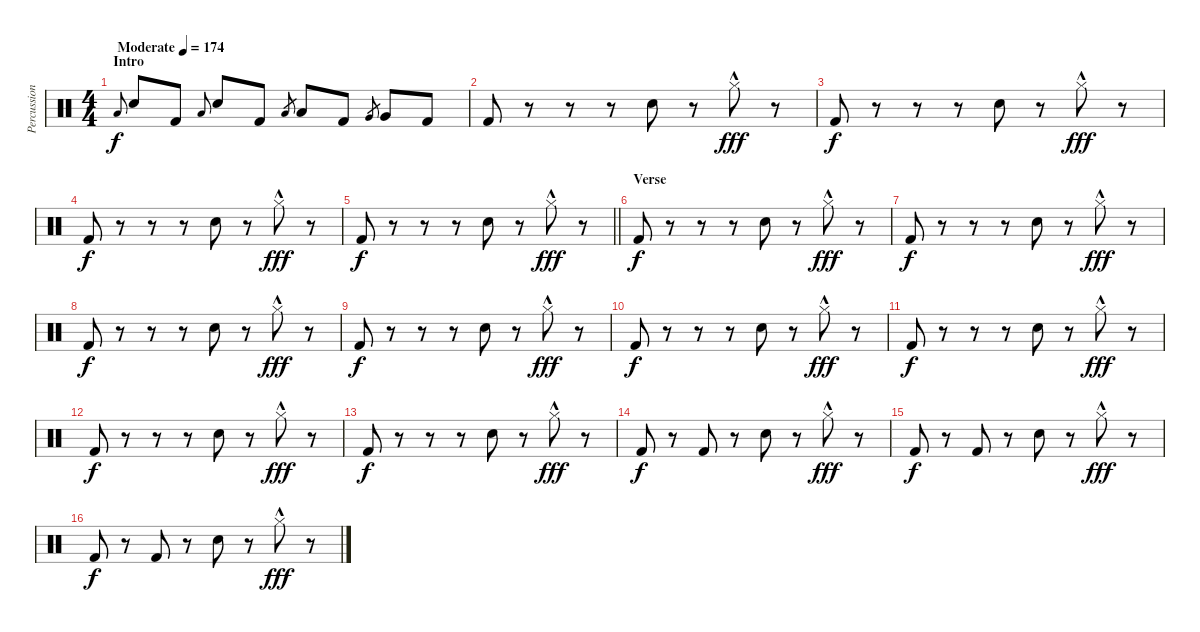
\track ("Percussion" "Percussion") {instrument percussion}
\staff {score}
\articulation defaults
\ts (4 4)
\section ("" "Intro")
\tempo (174 "Moderate")
\clef neutral
\ks c "Low Tom (hit)".8{gr onbeat dy f} "Snare (hit) 2".8 "Kick (hit) 2".8 "Low Tom (hit)".8{gr onbeat} "Snare (hit) 2".8 "Kick (hit) 2".8 "Low Tom (hit)".8{gr} "Low Tom (hit)".8 "Kick (hit) 2".8 "Very Low Tom (hit)".8{gr} "Very Low Tom (hit)".8 "Kick (hit) 2".8
|
"Kick (hit) 2".8 r.8 r.8 r.8 "Snare (hit) 2".8 r.8 "Hi-Hat (closed)"{hac}.8{dy fff} r.8 |
"Kick (hit) 2".8{dy f} r.8 r.8 r.8 "Snare (hit) 2".8 r.8 "Hi-Hat (closed)"{hac}.8{dy fff} r.8 |
"Kick (hit) 2".8{dy f} r.8 r.8 r.8 "Snare (hit) 2".8 r.8 "Hi-Hat (closed)"{hac}.8{dy fff} r.8 |
\barLineRight lightlight "Kick (hit) 2".8{dy f}
r.8 r.8 r.8 "Snare (hit) 2".8 r.8 "Hi-Hat (closed)"{hac}.8{dy fff} r.8 |
\section ("" "Verse ")
"Kick (hit) 2".8{dy f} r.8 r.8 r.8 "Snare (hit) 2".8 r.8 "Hi-Hat (closed)"{hac}.8{dy fff} r.8 |
"Kick (hit) 2".8{dy f} r.8 r.8 r.8 "Snare (hit) 2".8 r.8 "Hi-Hat (closed)"{hac}.8{dy fff} r.8 |
"Kick (hit) 2".8{dy f} r.8 r.8 r.8 "Snare (hit) 2".8 r.8 "Hi-Hat (closed)"{hac}.8{dy fff} r.8 |
"Kick (hit) 2".8{dy f} r.8 r.8 r.8 "Snare (hit) 2".8 r.8 "Hi-Hat (closed)"{hac}.8{dy fff} r.8 |
"Kick (hit) 2".8{dy f} r.8 r.8 r.8 "Snare (hit) 2".8 r.8 "Hi-Hat (closed)"{hac}.8{dy fff} r.8 |
"Kick (hit) 2".8{dy f} r.8 r.8 r.8 "Snare (hit) 2".8 r.8 "Hi-Hat (closed)"{hac}.8{dy fff} r.8 |
"Kick (hit) 2".8{dy f} r.8 r.8 r.8 "Snare (hit) 2".8 r.8 "Hi-Hat (closed)"{hac}.8{dy fff} r.8 |
"Kick (hit) 2".8{dy f} r.8 r.8 r.8 "Snare (hit) 2".8 r.8 "Hi-Hat (closed)"{hac}.8{dy fff} r.8 |
"Kick (hit) 2".8{dy f} r.8 "Kick (hit) 2".8 r.8 "Snare (hit) 2".8 r.8 "Hi-Hat (closed)"{hac}.8{dy fff} r.8 |
"Kick (hit) 2".8{dy f} r.8 "Kick (hit) 2".8 r.8 "Snare (hit) 2".8 r.8 "Hi-Hat (closed)"{hac}.8{dy fff} r.8 |
"Kick (hit) 2".8{dy f} r.8 "Kick (hit) 2".8 r.8 "Snare (hit) 2".8 r.8 "Hi-Hat (closed)"{hac}.8{dy fff} r.8
